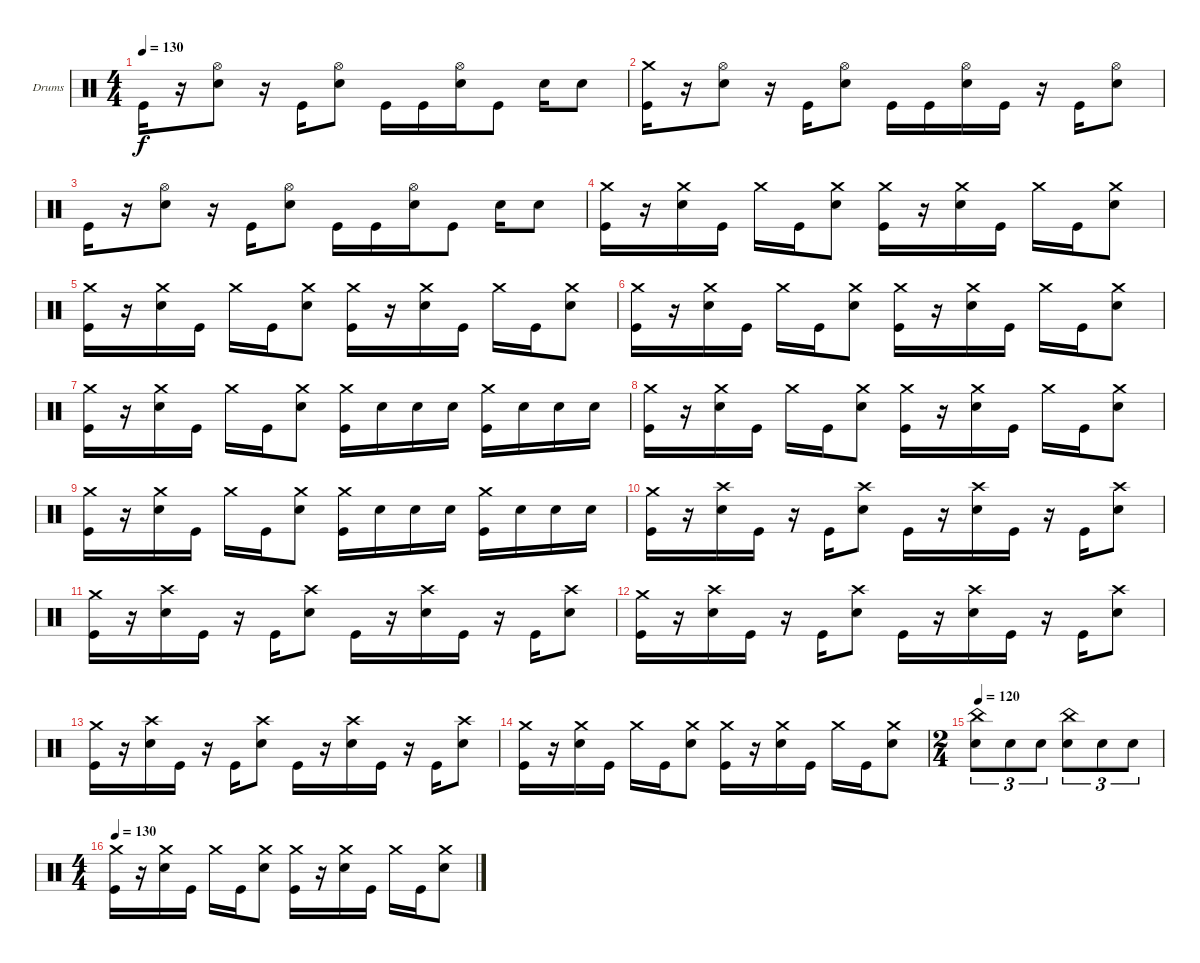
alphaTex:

\bracketExtendMode groupsimilarinstruments
\firstSystemTrackNameOrientation horizontal
\otherSystemsTrackNameOrientation horizontal
\track ("Drumkit" "Drums") {instrument percussion}
\staff {score}
\articulation defaults
\ts (4 4)
\tempo 130
\clef neutral
\ks c "Kick (hit)".16{dy f}
r.16 ("Snare (hit) 2" "Hi-Hat (open)").8 r.16 "Kick (hit)".16 ("Snare (hit) 2" "Hi-Hat (open)").8 "Kick (hit)".16 "Kick (hit)".16 ("Snare (hit) 2" "Hi-Hat (open)").16 "Kick (hit)".8 "Snare (hit) 2".16 "Snare (hit) 2".8 |
("Kick (hit)" "Crash medium (hit)").16 r.16 ("Snare (hit) 2" "Hi-Hat (open)").8 r.16 "Kick (hit)".16 ("Snare (hit) 2" "Hi-Hat (open)").8 "Kick (hit)".16 "Kick (hit)".16 ("Snare (hit) 2" "Hi-Hat (open)").16 "Kick (hit)".16 r.16 "Kick (hit)".16 ("Snare (hit) 2" "Hi-Hat (open)").8 |
"Kick (hit)".16 r.16 ("Snare (hit) 2" "Hi-Hat (open)").8 r.16 "Kick (hit)".16 ("Snare (hit) 2" "Hi-Hat (open)").8 "Kick (hit)".16 "Kick (hit)".16 ("Snare (hit) 2" "Hi-Hat (open)").16 "Kick (hit)".8 "Snare (hit) 2".16 "Snare (hit) 2".8 |
("Kick (hit)" "Crash medium (hit)").16 r.16 ("Snare (hit) 2" "Crash medium (hit)").16 "Kick (hit)".16 "Crash medium (hit)".16 "Kick (hit)".16 ("Snare (hit) 2" "Crash medium (hit)").8 ("Kick (hit)" "Crash medium (hit)").16 r.16 ("Snare (hit) 2" "Crash medium (hit)").16 "Kick (hit)".16 "Crash medium (hit)".16 "Kick (hit)".16 ("Snare (hit) 2" "Crash medium (hit)").8 |
("Kick (hit)" "Crash medium (hit)").16 r.16 ("Snare (hit) 2" "Crash medium (hit)").16 "Kick (hit)".16 "Crash medium (hit)".16 "Kick (hit)".16 ("Snare (hit) 2" "Crash medium (hit)").8 ("Kick (hit)" "Crash medium (hit)").16 r.16 ("Snare (hit) 2" "Crash medium (hit)").16 "Kick (hit)".16 "Crash medium (hit)".16 "Kick (hit)".16 ("Snare (hit) 2" "Crash medium (hit)").8 |
("Kick (hit)" "Crash medium (hit)").16 r.16 ("Snare (hit) 2" "Crash medium (hit)").16 "Kick (hit)".16 "Crash medium (hit)".16 "Kick (hit)".16 ("Snare (hit) 2" "Crash medium (hit)").8 ("Kick (hit)" "Crash medium (hit)").16 r.16 ("Snare (hit) 2" "Crash medium (hit)").16 "Kick (hit)".16 "Crash medium (hit)".16 "Kick (hit)".16 ("Snare (hit) 2" "Crash medium (hit)").8 |
("Kick (hit)" "Crash medium (hit)").16 r.16 ("Snare (hit) 2" "Crash medium (hit)").16 "Kick (hit)".16 "Crash medium (hit)".16 "Kick (hit)".16 ("Snare (hit) 2" "Crash medium (hit)").8 ("Kick (hit)" "Crash medium (hit)").16 "Snare (hit) 2".16 "Snare (hit) 2".16 "Snare (hit) 2".16 ("Kick (hit)" "Crash medium (hit)").16 "Snare (hit) 2".16 "Snare (hit) 2".16 "Snare (hit) 2".16 |
("Kick (hit)" "Crash medium (hit)").16 r.16 ("Snare (hit) 2" "Crash medium (hit)").16 "Kick (hit)".16 "Crash medium (hit)".16 "Kick (hit)".16 ("Snare (hit) 2" "Crash medium (hit)").8 ("Kick (hit)" "Crash medium (hit)").16 r.16 ("Snare (hit) 2" "Crash medium (hit)").16 "Kick (hit)".16 "Crash medium (hit)".16 "Kick (hit)".16 ("Snare (hit) 2" "Crash medium (hit)").8 |
("Kick (hit)" "Crash medium (hit)").16 r.16 ("Snare (hit) 2" "Crash medium (hit)").16 "Kick (hit)".16 "Crash medium (hit)".16 "Kick (hit)".16 ("Snare (hit) 2" "Crash medium (hit)").8 ("Kick (hit)" "Crash medium (hit)").16 "Snare (hit) 2".16 "Snare (hit) 2".16 "Snare (hit) 2".16 ("Kick (hit)" "Crash medium (hit)").16 "Snare (hit) 2".16 "Snare (hit) 2".16 "Snare (hit) 2".16 |
("Kick (hit)" "Crash medium (hit)").16 r.16 ("Snare (hit) 2" "Crash high (hit)").16 "Kick (hit)".16 r.16 "Kick (hit)".16 ("Snare (hit) 2" "Crash high (hit)").8 "Kick (hit)".16 r.16 ("Snare (hit) 2" "Crash high (hit)").16 "Kick (hit)".16 r.16 "Kick (hit)".16 ("Snare (hit) 2" "Crash high (hit)").8 |
("Kick (hit)" "Crash medium (hit)").16 r.16 ("Snare (hit) 2" "Crash high (hit)").16 "Kick (hit)".16 r.16 "Kick (hit)".16 ("Snare (hit) 2" "Crash high (hit)").8 "Kick (hit)".16 r.16 ("Snare (hit) 2" "Crash high (hit)").16 "Kick (hit)".16 r.16 "Kick (hit)".16 ("Snare (hit) 2" "Crash high (hit)").8 |
("Kick (hit)" "Crash medium (hit)").16 r.16 ("Snare (hit) 2" "Crash high (hit)").16 "Kick (hit)".16 r.16 "Kick (hit)".16 ("Snare (hit) 2" "Crash high (hit)").8 "Kick (hit)".16 r.16 ("Snare (hit) 2" "Crash high (hit)").16 "Kick (hit)".16 r.16 "Kick (hit)".16 ("Snare (hit) 2" "Crash high (hit)").8 |
("Kick (hit)" "Crash medium (hit)").16 r.16 ("Snare (hit) 2" "Crash high (hit)").16 "Kick (hit)".16 r.16 "Kick (hit)".16 ("Snare (hit) 2" "Crash high (hit)").8 "Kick (hit)".16 r.16 ("Snare (hit) 2" "Crash high (hit)").16 "Kick (hit)".16 r.16 "Kick (hit)".16 ("Snare (hit) 2" "Crash high (hit)").8 |
("Kick (hit)" "Crash medium (hit)").16 r.16 ("Snare (hit) 2" "Crash medium (hit)").16 "Kick (hit)".16 "Crash medium (hit)".16 "Kick (hit)".16 ("Snare (hit) 2" "Crash medium (hit)").8 ("Kick (hit)" "Crash medium (hit)").16 r.16 ("Snare (hit) 2" "Crash medium (hit)").16 "Kick (hit)".16 "Crash medium (hit)".16 "Kick (hit)".16 ("Snare (hit) 2" "Crash medium (hit)").8 |
\ts (2 4)
\tempo 120
("Snare (hit) 2" "China (hit)").8{tu (3 2)} "Snare (hit) 2".8{tu (3 2)} "Snare (hit) 2".8{tu (3 2)} ("Snare (hit) 2" "China (hit)").8{tu (3 2)} "Snare (hit) 2".8{tu (3 2)} "Snare (hit) 2".8{tu (3 2)} |
\ts (4 4)
\tempo 130
("Kick (hit)" "Crash medium (hit)").16 r.16 ("Snare (hit) 2" "Crash medium (hit)").16 "Kick (hit)".16 "Crash medium (hit)".16 "Kick (hit)".16 ("Snare (hit) 2" "Crash medium (hit)").8 ("Kick (hit)" "Crash medium (hit)").16 r.16 ("Snare (hit) 2" "Crash medium (hit)").16 "Kick (hit)".16 "Crash medium (hit)".16 "Kick (hit)".16 ("Snare (hit) 2" "Crash medium (hit)").8
